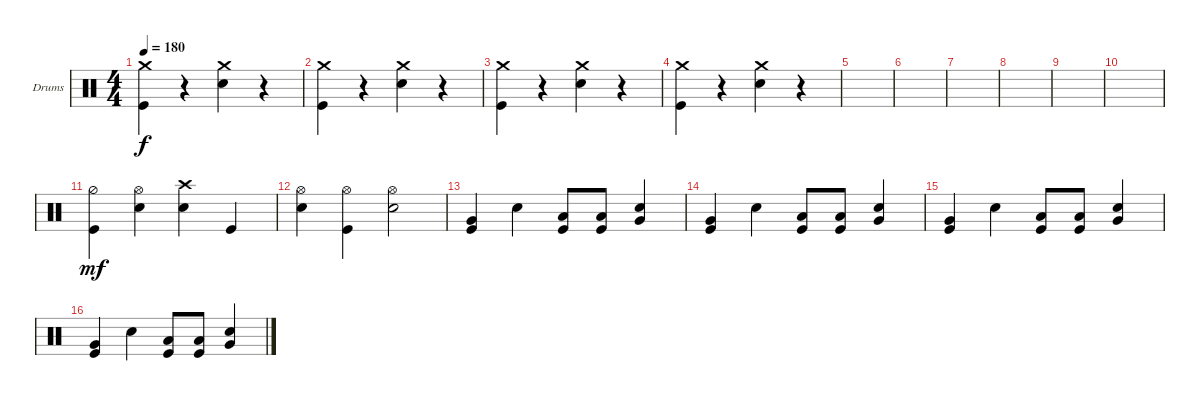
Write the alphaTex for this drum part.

\bracketExtendMode groupsimilarinstruments
\firstSystemTrackNameOrientation horizontal
\otherSystemsTrackNameOrientation horizontal
\track ("Drumkit" "Drums") {instrument percussion}
\staff {score}
\articulation defaults
\ts (4 4)
\tempo 180
\clef neutral
\scale
0.333333
\ks c
("Crash medium (hit)" "Kick (hit)").4{dy f} r.4 ("Crash medium (hit)" "Snare (hit) 2").4 r.4 |
\scale
0.333333 ("Crash medium (hit)" "Kick (hit)").4 r.4 ("Crash medium (hit)" "Snare (hit) 2").4 r.4 |
\scale
0.333333 ("Crash medium (hit)" "Kick (hit)").4 r.4 ("Crash medium (hit)" "Snare (hit) 2").4 r.4 |
\scale
0.333333 ("Crash medium (hit)" "Kick (hit)").4 r.4 ("Crash medium (hit)" "Snare (hit) 2").4 r.4 |
\scale
0.333333 |
\scale
0.333333 |
\scale
0.333333 |
\scale
0.333333 |
\scale
0.333333 |
\scale
0.333333 |
\scale
0.333333 ("Kick (hit)" "Hi-Hat (half)").4{dy mf} ("Snare (hit) 2" "Hi-Hat (open)").4 ("Snare (hit) 2" "Crash high (hit)").4 "Kick (hit)".4 |
\scale
0.333333 ("Snare (hit) 2" "Hi-Hat (open)").4 ("Kick (hit)" "Hi-Hat (open)").4 ("Snare (hit) 2" "Hi-Hat (open)").2 |
\scale
0.333333 ("Kick (hit)" "Very Low Tom (hit)").4 "Snare (hit) 2".4 ("Kick (hit)" "Low Tom (hit)").8 ("Kick (hit)" "Low Tom (hit)").8 ("Snare (hit) 2" "Very Low Tom (hit)").4 |
\scale
0.333333 ("Kick (hit)" "Very Low Tom (hit)").4 "Snare (hit) 2".4 ("Kick (hit)" "Low Tom (hit)").8 ("Kick (hit)" "Low Tom (hit)").8 ("Snare (hit) 2" "Very Low Tom (hit)").4 |
\scale
0.333333 ("Kick (hit)" "Very Low Tom (hit)").4 "Snare (hit) 2".4 ("Kick (hit)" "Low Tom (hit)").8 ("Kick (hit)" "Low Tom (hit)").8 ("Snare (hit) 2" "Very Low Tom (hit)").4 |
\scale
0.333333 ("Kick (hit)" "Very Low Tom (hit)").4 "Snare (hit) 2".4 ("Kick (hit)" "Low Tom (hit)").8 ("Kick (hit)" "Low Tom (hit)").8 ("Snare (hit) 2" "Very Low Tom (hit)").4
